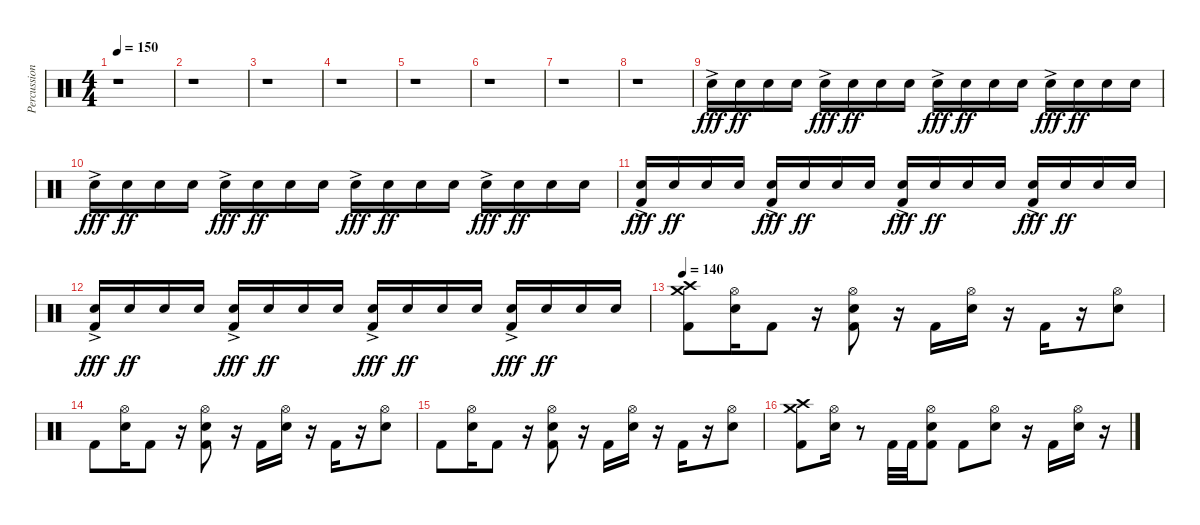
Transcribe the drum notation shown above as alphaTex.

\track ("Percussion" "Percussion") {instrument percussion}
\staff {score}
\articulation defaults
\ts (4 4)
\tempo 150
\clef neutral
\ks c
r.1{dy fff} |
r.1 |
r.1 |
r.1 |
r.1 |
r.1 |
r.1 |
r.1 |
"Electric Snare (hit)"{ac}.16 "Electric Snare (hit)".16{dy ff} "Electric Snare (hit)".16 "Electric Snare (hit)".16 "Electric Snare (hit)"{ac}.16{dy fff} "Electric Snare (hit)".16{dy ff} "Electric Snare (hit)".16 "Electric Snare (hit)".16 "Electric Snare (hit)"{ac}.16{dy fff} "Electric Snare (hit)".16{dy ff} "Electric Snare (hit)".16 "Electric Snare (hit)".16 "Electric Snare (hit)"{ac}.16{dy fff} "Electric Snare (hit)".16{dy ff} "Electric Snare (hit)".16 "Electric Snare (hit)".16 |
"Electric Snare (hit)"{ac}.16{dy fff} "Electric Snare (hit)".16{dy ff} "Electric Snare (hit)".16 "Electric Snare (hit)".16 "Electric Snare (hit)"{ac}.16{dy fff} "Electric Snare (hit)".16{dy ff} "Electric Snare (hit)".16 "Electric Snare (hit)".16 "Electric Snare (hit)"{ac}.16{dy fff} "Electric Snare (hit)".16{dy ff} "Electric Snare (hit)".16 "Electric Snare (hit)".16 "Electric Snare (hit)"{ac}.16{dy fff} "Electric Snare (hit)".16{dy ff} "Electric Snare (hit)".16 "Electric Snare (hit)".16 |
("Kick (hit) 2"{ac} "Electric Snare (hit)"{ac}).16{dy fff} "Electric Snare (hit)".16{dy ff} "Electric Snare (hit)".16 "Electric Snare (hit)".16 ("Kick (hit) 2"{ac} "Electric Snare (hit)"{ac}).16{dy fff} "Electric Snare (hit)".16{dy ff} "Electric Snare (hit)".16 "Electric Snare (hit)".16 ("Kick (hit) 2"{ac} "Electric Snare (hit)"{ac}).16{dy fff} "Electric Snare (hit)".16{dy ff} "Electric Snare (hit)".16 "Electric Snare (hit)".16 ("Kick (hit) 2"{ac} "Electric Snare (hit)"{ac}).16{dy fff} "Electric Snare (hit)".16{dy ff} "Electric Snare (hit)".16 "Electric Snare (hit)".16 |
("Kick (hit) 2"{ac} "Electric Snare (hit)"{ac}).16{dy fff} "Electric Snare (hit)".16{dy ff} "Electric Snare (hit)".16 "Electric Snare (hit)".16 ("Kick (hit) 2"{ac} "Electric Snare (hit)"{ac}).16{dy fff} "Electric Snare (hit)".16{dy ff} "Electric Snare (hit)".16 "Electric Snare (hit)".16 ("Kick (hit) 2"{ac} "Electric Snare (hit)"{ac}).16{dy fff} "Electric Snare (hit)".16{dy ff} "Electric Snare (hit)".16 "Electric Snare (hit)".16 ("Kick (hit) 2"{ac} "Electric Snare (hit)"{ac}).16{dy fff} "Electric Snare (hit)".16{dy ff} "Electric Snare (hit)".16 "Electric Snare (hit)".16 |
\tempo 140
("Kick (hit) 2" "Crash medium (hit)" "Crash high (hit)").8 ("Electric Snare (hit)" "Hi-Hat (open)").16 "Kick (hit) 2".8 r.16 ("Kick (hit) 2" "Electric Snare (hit)" "Hi-Hat (open)").8 r.16 "Kick (hit) 2".16 ("Electric Snare (hit)" "Hi-Hat (open)").16 r.16 "Kick (hit) 2".16 r.16 ("Electric Snare (hit)" "Hi-Hat (open)").8 |
"Kick (hit) 2".8 ("Electric Snare (hit)" "Hi-Hat (open)").16 "Kick (hit) 2".8 r.16 ("Kick (hit) 2" "Electric Snare (hit)" "Hi-Hat (open)").8 r.16 "Kick (hit) 2".16 ("Electric Snare (hit)" "Hi-Hat (open)").16 r.16 "Kick (hit) 2".16 r.16 ("Electric Snare (hit)" "Hi-Hat (open)").8 |
"Kick (hit) 2".8 ("Electric Snare (hit)" "Hi-Hat (open)").16 "Kick (hit) 2".8 r.16 ("Kick (hit) 2" "Electric Snare (hit)" "Hi-Hat (open)").8 r.16 "Kick (hit) 2".16 ("Electric Snare (hit)" "Hi-Hat (open)").16 r.16 "Kick (hit) 2".16 r.16 ("Electric Snare (hit)" "Hi-Hat (open)").8 |
("Kick (hit) 2" "Crash medium (hit)" "Crash high (hit)").8 ("Electric Snare (hit)" "Hi-Hat (open)").16 r.8 "Kick (hit) 2".32 "Kick (hit) 2".32 ("Kick (hit) 2" "Electric Snare (hit)" "Hi-Hat (open)").8 "Kick (hit) 2".8 ("Electric Snare (hit)" "Hi-Hat (open)").8 r.16 "Kick (hit) 2".16 ("Electric Snare (hit)" "Hi-Hat (open)").16 r.16
